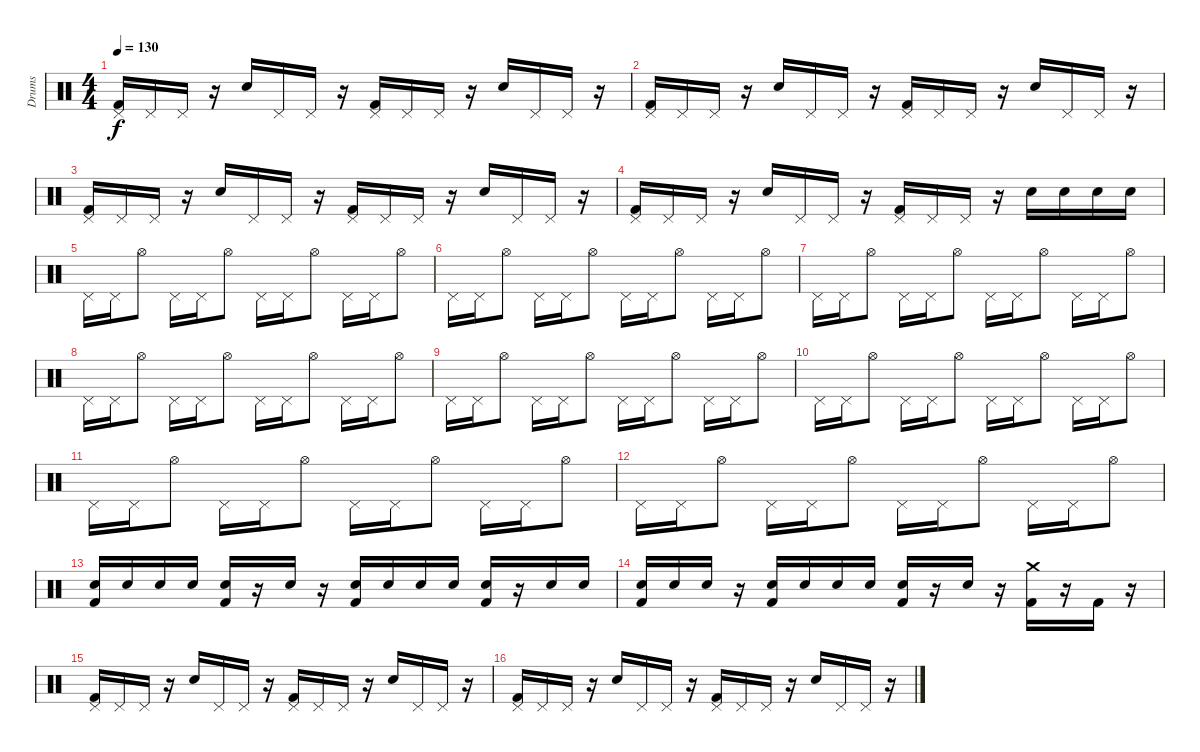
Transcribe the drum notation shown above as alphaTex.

\track ("Drums" "Drums") {instrument percussion}
\staff {score}
\articulation defaults
\ts (4 4)
\tempo 130
\clef neutral
\ks c
("Pedal Hi-Hat (hit)" "Kick (hit) 2").16{dy f} "Pedal Hi-Hat (hit)".16 "Pedal Hi-Hat (hit)".16 r.16 "Electric Snare (hit)".16 "Pedal Hi-Hat (hit)".16 "Pedal Hi-Hat (hit)".16 r.16 ("Pedal Hi-Hat (hit)" "Kick (hit) 2").16 "Pedal Hi-Hat (hit)".16 "Pedal Hi-Hat (hit)".16 r.16 "Electric Snare (hit)".16 "Pedal Hi-Hat (hit)".16 "Pedal Hi-Hat (hit)".16 r.16 |
("Pedal Hi-Hat (hit)" "Kick (hit) 2").16 "Pedal Hi-Hat (hit)".16 "Pedal Hi-Hat (hit)".16 r.16 "Electric Snare (hit)".16 "Pedal Hi-Hat (hit)".16 "Pedal Hi-Hat (hit)".16 r.16 ("Pedal Hi-Hat (hit)" "Kick (hit) 2").16 "Pedal Hi-Hat (hit)".16 "Pedal Hi-Hat (hit)".16 r.16 "Electric Snare (hit)".16 "Pedal Hi-Hat (hit)".16 "Pedal Hi-Hat (hit)".16 r.16 |
("Pedal Hi-Hat (hit)" "Kick (hit) 2").16 "Pedal Hi-Hat (hit)".16 "Pedal Hi-Hat (hit)".16 r.16 "Electric Snare (hit)".16 "Pedal Hi-Hat (hit)".16 "Pedal Hi-Hat (hit)".16 r.16 ("Pedal Hi-Hat (hit)" "Kick (hit) 2").16 "Pedal Hi-Hat (hit)".16 "Pedal Hi-Hat (hit)".16 r.16 "Electric Snare (hit)".16 "Pedal Hi-Hat (hit)".16 "Pedal Hi-Hat (hit)".16 r.16 |
("Pedal Hi-Hat (hit)" "Kick (hit) 2").16 "Pedal Hi-Hat (hit)".16 "Pedal Hi-Hat (hit)".16 r.16 "Electric Snare (hit)".16 "Pedal Hi-Hat (hit)".16 "Pedal Hi-Hat (hit)".16 r.16 ("Pedal Hi-Hat (hit)" "Kick (hit) 2").16 "Pedal Hi-Hat (hit)".16 "Pedal Hi-Hat (hit)".16 r.16 "Electric Snare (hit)".16 "Electric Snare (hit)".16 "Electric Snare (hit)".16 "Electric Snare (hit)".16 |
"Pedal Hi-Hat (hit)".16 "Pedal Hi-Hat (hit)".16 "Hi-Hat (open)".8 "Pedal Hi-Hat (hit)".16 "Pedal Hi-Hat (hit)".16 "Hi-Hat (open)".8 "Pedal Hi-Hat (hit)".16 "Pedal Hi-Hat (hit)".16 "Hi-Hat (open)".8 "Pedal Hi-Hat (hit)".16 "Pedal Hi-Hat (hit)".16 "Hi-Hat (open)".8 |
"Pedal Hi-Hat (hit)".16 "Pedal Hi-Hat (hit)".16 "Hi-Hat (open)".8 "Pedal Hi-Hat (hit)".16 "Pedal Hi-Hat (hit)".16 "Hi-Hat (open)".8 "Pedal Hi-Hat (hit)".16 "Pedal Hi-Hat (hit)".16 "Hi-Hat (open)".8 "Pedal Hi-Hat (hit)".16 "Pedal Hi-Hat (hit)".16 "Hi-Hat (open)".8 |
"Pedal Hi-Hat (hit)".16 "Pedal Hi-Hat (hit)".16 "Hi-Hat (open)".8 "Pedal Hi-Hat (hit)".16 "Pedal Hi-Hat (hit)".16 "Hi-Hat (open)".8 "Pedal Hi-Hat (hit)".16 "Pedal Hi-Hat (hit)".16 "Hi-Hat (open)".8 "Pedal Hi-Hat (hit)".16 "Pedal Hi-Hat (hit)".16 "Hi-Hat (open)".8 |
"Pedal Hi-Hat (hit)".16 "Pedal Hi-Hat (hit)".16 "Hi-Hat (open)".8 "Pedal Hi-Hat (hit)".16 "Pedal Hi-Hat (hit)".16 "Hi-Hat (open)".8 "Pedal Hi-Hat (hit)".16 "Pedal Hi-Hat (hit)".16 "Hi-Hat (open)".8 "Pedal Hi-Hat (hit)".16 "Pedal Hi-Hat (hit)".16 "Hi-Hat (open)".8 |
"Pedal Hi-Hat (hit)".16 "Pedal Hi-Hat (hit)".16 "Hi-Hat (open)".8 "Pedal Hi-Hat (hit)".16 "Pedal Hi-Hat (hit)".16 "Hi-Hat (open)".8 "Pedal Hi-Hat (hit)".16 "Pedal Hi-Hat (hit)".16 "Hi-Hat (open)".8 "Pedal Hi-Hat (hit)".16 "Pedal Hi-Hat (hit)".16 "Hi-Hat (open)".8 |
"Pedal Hi-Hat (hit)".16 "Pedal Hi-Hat (hit)".16 "Hi-Hat (open)".8 "Pedal Hi-Hat (hit)".16 "Pedal Hi-Hat (hit)".16 "Hi-Hat (open)".8 "Pedal Hi-Hat (hit)".16 "Pedal Hi-Hat (hit)".16 "Hi-Hat (open)".8 "Pedal Hi-Hat (hit)".16 "Pedal Hi-Hat (hit)".16 "Hi-Hat (open)".8 |
"Pedal Hi-Hat (hit)".16 "Pedal Hi-Hat (hit)".16 "Hi-Hat (open)".8 "Pedal Hi-Hat (hit)".16 "Pedal Hi-Hat (hit)".16 "Hi-Hat (open)".8 "Pedal Hi-Hat (hit)".16 "Pedal Hi-Hat (hit)".16 "Hi-Hat (open)".8 "Pedal Hi-Hat (hit)".16 "Pedal Hi-Hat (hit)".16 "Hi-Hat (open)".8 |
"Pedal Hi-Hat (hit)".16 "Pedal Hi-Hat (hit)".16 "Hi-Hat (open)".8 "Pedal Hi-Hat (hit)".16 "Pedal Hi-Hat (hit)".16 "Hi-Hat (open)".8 "Pedal Hi-Hat (hit)".16 "Pedal Hi-Hat (hit)".16 "Hi-Hat (open)".8 "Pedal Hi-Hat (hit)".16 "Pedal Hi-Hat (hit)".16 "Hi-Hat (open)".8 |
("Electric Snare (hit)" "Kick (hit) 2").16 "Electric Snare (hit)".16 "Electric Snare (hit)".16 "Electric Snare (hit)".16 ("Electric Snare (hit)" "Kick (hit) 2").16 r.16 "Electric Snare (hit)".16 r.16 ("Electric Snare (hit)" "Kick (hit) 2").16 "Electric Snare (hit)".16 "Electric Snare (hit)".16 "Electric Snare (hit)".16 ("Electric Snare (hit)" "Kick (hit) 2").16 r.16 "Electric Snare (hit)".16 "Electric Snare (hit)".16 |
("Electric Snare (hit)" "Kick (hit) 2").16 "Electric Snare (hit)".16 "Electric Snare (hit)".16 r.16 ("Electric Snare (hit)" "Kick (hit) 2").16 "Electric Snare (hit)".16 "Electric Snare (hit)".16 "Electric Snare (hit)".16 ("Electric Snare (hit)" "Kick (hit) 2").16 r.16 "Electric Snare (hit)".16 r.16 ("Crash medium (hit)" "Kick (hit) 2").16 r.16 "Kick (hit) 2".16 r.16 |
("Pedal Hi-Hat (hit)" "Kick (hit) 2").16 "Pedal Hi-Hat (hit)".16 "Pedal Hi-Hat (hit)".16 r.16 "Electric Snare (hit)".16 "Pedal Hi-Hat (hit)".16 "Pedal Hi-Hat (hit)".16 r.16 ("Pedal Hi-Hat (hit)" "Kick (hit) 2").16 "Pedal Hi-Hat (hit)".16 "Pedal Hi-Hat (hit)".16 r.16 "Electric Snare (hit)".16 "Pedal Hi-Hat (hit)".16 "Pedal Hi-Hat (hit)".16 r.16 |
("Pedal Hi-Hat (hit)" "Kick (hit) 2").16 "Pedal Hi-Hat (hit)".16 "Pedal Hi-Hat (hit)".16 r.16 "Electric Snare (hit)".16 "Pedal Hi-Hat (hit)".16 "Pedal Hi-Hat (hit)".16 r.16 ("Pedal Hi-Hat (hit)" "Kick (hit) 2").16 "Pedal Hi-Hat (hit)".16 "Pedal Hi-Hat (hit)".16 r.16 "Electric Snare (hit)".16 "Pedal Hi-Hat (hit)".16 "Pedal Hi-Hat (hit)".16 r.16
